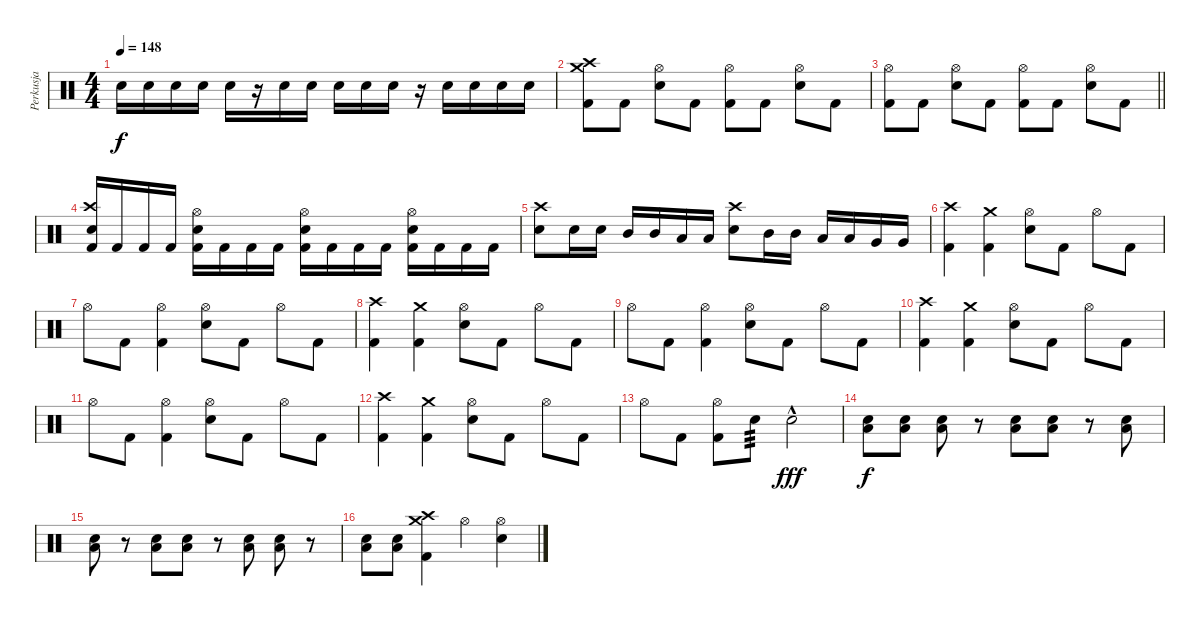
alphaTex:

\track ("Perkusja" "Perkusja") {instrument percussion}
\staff {score}
\articulation defaults
\ts (4 4)
\tempo 148
\clef neutral
\ks c "Snare (hit) 2".16{dy f} "Snare (hit) 2".16 "Snare (hit) 2".16 "Snare (hit) 2".16 "Snare (hit) 2".16
r.16 "Snare (hit) 2".16 "Snare (hit) 2".16 "Snare (hit) 2".16 "Snare (hit) 2".16 "Snare (hit) 2".16 r.16 "Snare (hit) 2".16 "Snare (hit) 2".16 "Snare (hit) 2".16 "Snare (hit) 2".16 |
("Crash high (hit)" "Crash medium (hit)" "Kick (hit) 2").8 "Kick (hit) 2".8 ("Hi-Hat (open)" "Snare (hit) 2").8 "Kick (hit) 2".8 ("Hi-Hat (open)" "Kick (hit) 2").8 "Kick (hit) 2".8 ("Hi-Hat (open)" "Snare (hit) 2").8 "Kick (hit) 2".8 |
\barLineRight lightlight
("Hi-Hat (open)" "Kick (hit) 2").8 "Kick (hit) 2".8 ("Hi-Hat (open)" "Snare (hit) 2").8 "Kick (hit) 2".8 ("Hi-Hat (open)" "Kick (hit) 2").8 "Kick (hit) 2".8 ("Hi-Hat (open)" "Snare (hit) 2").8 "Kick (hit) 2".8 |
("Crash high (hit)" "Snare (hit) 2" "Kick (hit) 2").16 "Kick (hit) 2".16 "Kick (hit) 2".16 "Kick (hit) 2".16 ("Hi-Hat (open)" "Snare (hit) 2" "Kick (hit) 2").16 "Kick (hit) 2".16 "Kick (hit) 2".16 "Kick (hit) 2".16 ("Hi-Hat (open)" "Snare (hit) 2" "Kick (hit) 2").16 "Kick (hit) 2".16 "Kick (hit) 2".16 "Kick (hit) 2".16 ("Hi-Hat (open)" "Snare (hit) 2" "Kick (hit) 2").16 "Kick (hit) 2".16 "Kick (hit) 2".16 "Kick (hit) 2".16 |
("Crash high (hit)" "Snare (hit) 2").8 "Snare (hit) 2".16 "Snare (hit) 2".16 "Mid Tom (hit)".16 "Mid Tom (hit)".16 "Low Tom (hit)".16 "Low Tom (hit)".16 ("Crash high (hit)" "Snare (hit) 2").8 "Mid Tom (hit)".16 "Mid Tom (hit)".16 "Low Tom (hit)".16 "Low Tom (hit)".16 "Very Low Tom (hit)".16 "Very Low Tom (hit)".16 |
("Crash high (hit)" "Kick (hit) 2").4 ("Crash medium (hit)" "Kick (hit) 2").4 ("Hi-Hat (open)" "Snare (hit) 2").8 "Kick (hit) 2".8 "Hi-Hat (open)".8 "Kick (hit) 2".8 |
"Hi-Hat (open)".8 "Kick (hit) 2".8 ("Hi-Hat (open)" "Kick (hit) 2").4 ("Hi-Hat (open)" "Snare (hit) 2").8 "Kick (hit) 2".8 "Hi-Hat (open)".8 "Kick (hit) 2".8 |
("Crash high (hit)" "Kick (hit) 2").4 ("Crash medium (hit)" "Kick (hit) 2").4 ("Hi-Hat (open)" "Snare (hit) 2").8 "Kick (hit) 2".8 "Hi-Hat (open)".8 "Kick (hit) 2".8 |
"Hi-Hat (open)".8 "Kick (hit) 2".8 ("Hi-Hat (open)" "Kick (hit) 2").4 ("Hi-Hat (open)" "Snare (hit) 2").8 "Kick (hit) 2".8 "Hi-Hat (open)".8 "Kick (hit) 2".8 |
("Crash high (hit)" "Kick (hit) 2").4 ("Crash medium (hit)" "Kick (hit) 2").4 ("Hi-Hat (open)" "Snare (hit) 2").8 "Kick (hit) 2".8 "Hi-Hat (open)".8 "Kick (hit) 2".8 |
"Hi-Hat (open)".8 "Kick (hit) 2".8 ("Hi-Hat (open)" "Kick (hit) 2").4 ("Hi-Hat (open)" "Snare (hit) 2").8 "Kick (hit) 2".8 "Hi-Hat (open)".8 "Kick (hit) 2".8 |
("Crash high (hit)" "Kick (hit) 2").4 ("Crash medium (hit)" "Kick (hit) 2").4 ("Hi-Hat (open)" "Snare (hit) 2").8 "Kick (hit) 2".8 "Hi-Hat (open)".8 "Kick (hit) 2".8 |
"Hi-Hat (open)".8 "Kick (hit) 2".8 ("Hi-Hat (open)" "Kick (hit) 2").8 "Snare (hit) 2".8{tp 3} "Snare (hit) 2"{hac}.2{dy fff} |
("Snare (hit) 2" "Low Floor Tom (hit)").8{dy f} ("Snare (hit) 2" "Low Floor Tom (hit)").8 ("Snare (hit) 2" "Low Floor Tom (hit)").8 r.8 ("Snare (hit) 2" "Low Floor Tom (hit)").8 ("Snare (hit) 2" "Low Floor Tom (hit)").8 r.8 ("Snare (hit) 2" "Low Floor Tom (hit)").8 |
("Snare (hit) 2" "Low Floor Tom (hit)").8 r.8 ("Snare (hit) 2" "Low Floor Tom (hit)").8 ("Snare (hit) 2" "Low Floor Tom (hit)").8 r.8 ("Snare (hit) 2" "Low Floor Tom (hit)").8 ("Snare (hit) 2" "Low Floor Tom (hit)").8 r.8 |
("Snare (hit) 2" "Low Floor Tom (hit)").8 ("Snare (hit) 2" "Low Floor Tom (hit)").8 ("Crash high (hit)" "Crash medium (hit)" "Kick (hit) 2").4 "Hi-Hat (open)".4 ("Hi-Hat (open)" "Snare (hit) 2").4
